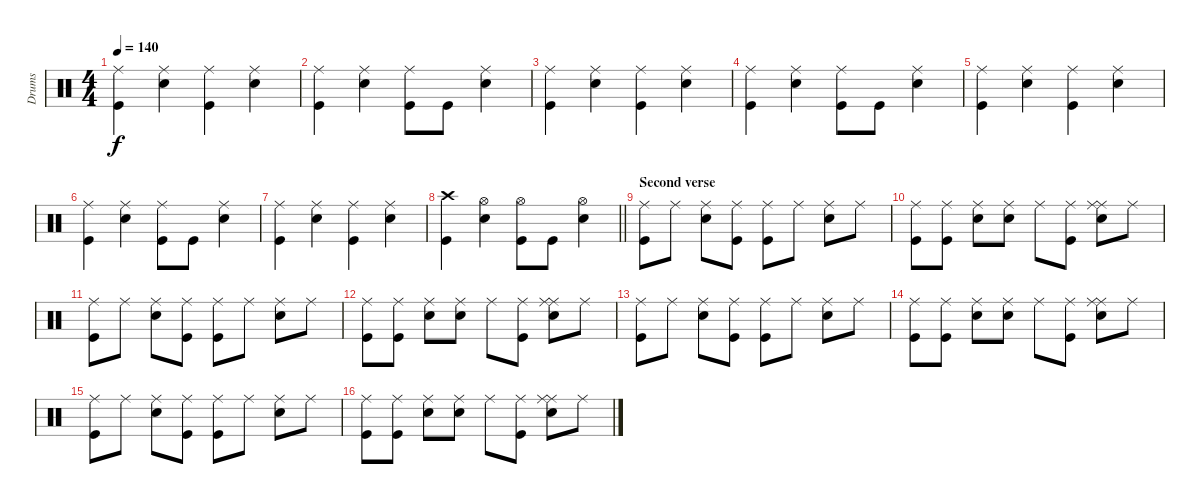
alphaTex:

\track ("Drums" "Drums") {instrument percussion}
\staff {score}
\articulation defaults
\ts (4 4)
\tempo 140
\clef neutral
\ks c
("Ride (middle)" "Kick (hit)").4{dy f} ("Ride (middle)" "Snare (hit) 2").4 ("Ride (middle)" "Kick (hit)").4 ("Ride (middle)" "Snare (hit) 2").4 |
("Ride (middle)" "Kick (hit)").4 ("Ride (middle)" "Snare (hit) 2").4 ("Ride (middle)" "Kick (hit)").8 "Kick (hit)".8 ("Ride (middle)" "Snare (hit) 2").4 |
("Ride (middle)" "Kick (hit)").4 ("Ride (middle)" "Snare (hit) 2").4 ("Ride (middle)" "Kick (hit)").4 ("Ride (middle)" "Snare (hit) 2").4 |
("Ride (middle)" "Kick (hit)").4 ("Ride (middle)" "Snare (hit) 2").4 ("Ride (middle)" "Kick (hit)").8 "Kick (hit)".8 ("Ride (middle)" "Snare (hit) 2").4 |
("Ride (middle)" "Kick (hit)").4 ("Ride (middle)" "Snare (hit) 2").4 ("Ride (middle)" "Kick (hit)").4 ("Ride (middle)" "Snare (hit) 2").4 |
("Ride (middle)" "Kick (hit)").4 ("Ride (middle)" "Snare (hit) 2").4 ("Ride (middle)" "Kick (hit)").8 "Kick (hit)".8 ("Ride (middle)" "Snare (hit) 2").4 |
("Ride (middle)" "Kick (hit)").4 ("Ride (middle)" "Snare (hit) 2").4 ("Ride (middle)" "Kick (hit)").4 ("Ride (middle)" "Snare (hit) 2").4 |
\barLineRight lightlight
("Crash high (hit)" "Kick (hit)").4 ("Hi-Hat (open)" "Snare (hit) 2").4 ("Hi-Hat (open)" "Kick (hit)").8 "Kick (hit)".8 ("Hi-Hat (open)" "Snare (hit) 2").4 |
\section ("" "Second verse")
("Ride (middle)" "Kick (hit)").8 "Ride (middle)".8 ("Ride (middle)" "Snare (hit) 2").8 ("Ride (middle)" "Kick (hit)").8 ("Ride (middle)" "Kick (hit)").8 "Ride (middle)".8 ("Ride (middle)" "Snare (hit) 2").8 "Ride (middle)".8 |
("Ride (middle)" "Kick (hit)").8 ("Ride (middle)" "Kick (hit)").8 ("Ride (middle)" "Snare (hit) 2").8 ("Ride (middle)" "Snare (hit) 2").8 "Ride (middle)".8 ("Ride (middle)" "Kick (hit)").8 ("Ride (middle)" "Ride (middle)" "Snare (hit) 2").8 "Ride (middle)".8 |
("Ride (middle)" "Kick (hit)").8 "Ride (middle)".8 ("Ride (middle)" "Snare (hit) 2").8 ("Ride (middle)" "Kick (hit)").8 ("Ride (middle)" "Kick (hit)").8 "Ride (middle)".8 ("Ride (middle)" "Snare (hit) 2").8 "Ride (middle)".8 |
("Ride (middle)" "Kick (hit)").8 ("Ride (middle)" "Kick (hit)").8 ("Ride (middle)" "Snare (hit) 2").8 ("Ride (middle)" "Snare (hit) 2").8 "Ride (middle)".8 ("Ride (middle)" "Kick (hit)").8 ("Ride (middle)" "Ride (middle)" "Snare (hit) 2").8 "Ride (middle)".8 |
("Ride (middle)" "Kick (hit)").8 "Ride (middle)".8 ("Ride (middle)" "Snare (hit) 2").8 ("Ride (middle)" "Kick (hit)").8 ("Ride (middle)" "Kick (hit)").8 "Ride (middle)".8 ("Ride (middle)" "Snare (hit) 2").8 "Ride (middle)".8 |
("Ride (middle)" "Kick (hit)").8 ("Ride (middle)" "Kick (hit)").8 ("Ride (middle)" "Snare (hit) 2").8 ("Ride (middle)" "Snare (hit) 2").8 "Ride (middle)".8 ("Ride (middle)" "Kick (hit)").8 ("Ride (middle)" "Ride (middle)" "Snare (hit) 2").8 "Ride (middle)".8 |
("Ride (middle)" "Kick (hit)").8 "Ride (middle)".8 ("Ride (middle)" "Snare (hit) 2").8 ("Ride (middle)" "Kick (hit)").8 ("Ride (middle)" "Kick (hit)").8 "Ride (middle)".8 ("Ride (middle)" "Snare (hit) 2").8 "Ride (middle)".8 |
("Ride (middle)" "Kick (hit)").8 ("Ride (middle)" "Kick (hit)").8 ("Ride (middle)" "Snare (hit) 2").8 ("Ride (middle)" "Snare (hit) 2").8 "Ride (middle)".8 ("Ride (middle)" "Kick (hit)").8 ("Ride (middle)" "Ride (middle)" "Snare (hit) 2").8 "Ride (middle)".8
